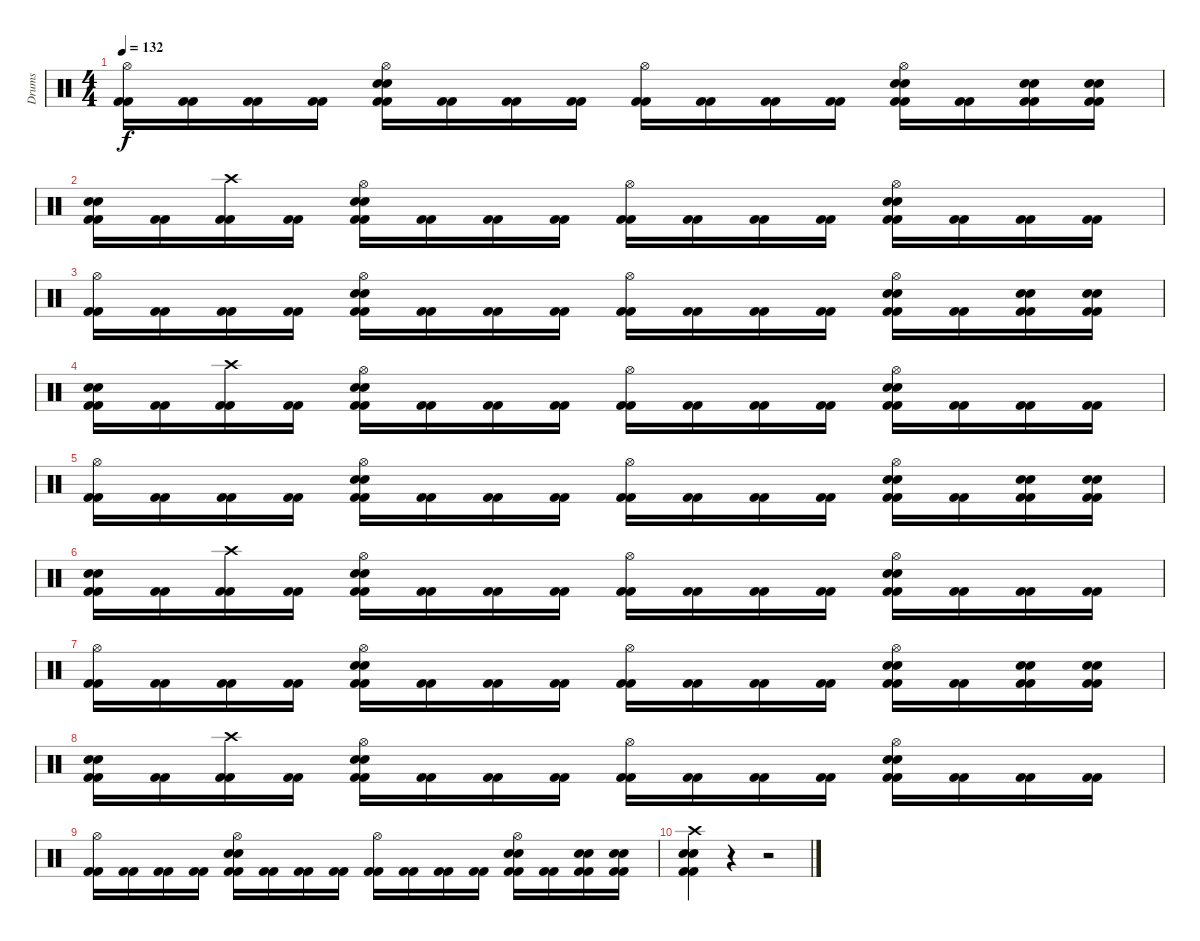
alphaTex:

\track ("Drums" "Drums") {instrument percussion}
\staff {score}
\articulation defaults
\ts (4 4)
\tempo 132
\clef neutral
\ks c
("Hi-Hat (open)" "Kick (hit) 2" "Kick (hit) 2").16{dy f} ("Kick (hit) 2" "Kick (hit) 2").16 ("Kick (hit) 2" "Kick (hit) 2").16 ("Kick (hit) 2" "Kick (hit) 2").16 ("Hi-Hat (open)" "Snare (hit) 2" "Snare (hit) 2" "Kick (hit) 2" "Kick (hit) 2").16 ("Kick (hit) 2" "Kick (hit) 2").16 ("Kick (hit) 2" "Kick (hit) 2").16 ("Kick (hit) 2" "Kick (hit) 2").16 ("Hi-Hat (open)" "Kick (hit) 2" "Kick (hit) 2").16 ("Kick (hit) 2" "Kick (hit) 2").16 ("Kick (hit) 2" "Kick (hit) 2").16 ("Kick (hit) 2" "Kick (hit) 2").16 ("Hi-Hat (open)" "Snare (hit) 2" "Snare (hit) 2" "Kick (hit) 2" "Kick (hit) 2").16 ("Kick (hit) 2" "Kick (hit) 2").16 ("Snare (hit) 2" "Snare (hit) 2" "Kick (hit) 2" "Kick (hit) 2").16 ("Snare (hit) 2" "Snare (hit) 2" "Kick (hit) 2" "Kick (hit) 2").16 |
("Snare (hit) 2" "Snare (hit) 2" "Kick (hit) 2" "Kick (hit) 2").16 ("Kick (hit) 2" "Kick (hit) 2").16 ("Crash high (hit)" "Kick (hit) 2" "Kick (hit) 2").16 ("Kick (hit) 2" "Kick (hit) 2").16 ("Hi-Hat (open)" "Snare (hit) 2" "Snare (hit) 2" "Kick (hit) 2" "Kick (hit) 2").16 ("Kick (hit) 2" "Kick (hit) 2").16 ("Kick (hit) 2" "Kick (hit) 2").16 ("Kick (hit) 2" "Kick (hit) 2").16 ("Hi-Hat (open)" "Kick (hit) 2" "Kick (hit) 2").16 ("Kick (hit) 2" "Kick (hit) 2").16 ("Kick (hit) 2" "Kick (hit) 2").16 ("Kick (hit) 2" "Kick (hit) 2").16 ("Hi-Hat (open)" "Snare (hit) 2" "Snare (hit) 2" "Kick (hit) 2" "Kick (hit) 2").16 ("Kick (hit) 2" "Kick (hit) 2").16 ("Kick (hit) 2" "Kick (hit) 2").16 ("Kick (hit) 2" "Kick (hit) 2").16 |
("Hi-Hat (open)" "Kick (hit) 2" "Kick (hit) 2").16 ("Kick (hit) 2" "Kick (hit) 2").16 ("Kick (hit) 2" "Kick (hit) 2").16 ("Kick (hit) 2" "Kick (hit) 2").16 ("Hi-Hat (open)" "Snare (hit) 2" "Snare (hit) 2" "Kick (hit) 2" "Kick (hit) 2").16 ("Kick (hit) 2" "Kick (hit) 2").16 ("Kick (hit) 2" "Kick (hit) 2").16 ("Kick (hit) 2" "Kick (hit) 2").16 ("Hi-Hat (open)" "Kick (hit) 2" "Kick (hit) 2").16 ("Kick (hit) 2" "Kick (hit) 2").16 ("Kick (hit) 2" "Kick (hit) 2").16 ("Kick (hit) 2" "Kick (hit) 2").16 ("Hi-Hat (open)" "Snare (hit) 2" "Snare (hit) 2" "Kick (hit) 2" "Kick (hit) 2").16 ("Kick (hit) 2" "Kick (hit) 2").16 ("Snare (hit) 2" "Snare (hit) 2" "Kick (hit) 2" "Kick (hit) 2").16 ("Snare (hit) 2" "Snare (hit) 2" "Kick (hit) 2" "Kick (hit) 2").16 |
("Snare (hit) 2" "Snare (hit) 2" "Kick (hit) 2" "Kick (hit) 2").16 ("Kick (hit) 2" "Kick (hit) 2").16 ("Crash high (hit)" "Kick (hit) 2" "Kick (hit) 2").16 ("Kick (hit) 2" "Kick (hit) 2").16 ("Hi-Hat (open)" "Snare (hit) 2" "Snare (hit) 2" "Kick (hit) 2" "Kick (hit) 2").16 ("Kick (hit) 2" "Kick (hit) 2").16 ("Kick (hit) 2" "Kick (hit) 2").16 ("Kick (hit) 2" "Kick (hit) 2").16 ("Hi-Hat (open)" "Kick (hit) 2" "Kick (hit) 2").16 ("Kick (hit) 2" "Kick (hit) 2").16 ("Kick (hit) 2" "Kick (hit) 2").16 ("Kick (hit) 2" "Kick (hit) 2").16 ("Hi-Hat (open)" "Snare (hit) 2" "Snare (hit) 2" "Kick (hit) 2" "Kick (hit) 2").16 ("Kick (hit) 2" "Kick (hit) 2").16 ("Kick (hit) 2" "Kick (hit) 2").16 ("Kick (hit) 2" "Kick (hit) 2").16 |
("Hi-Hat (open)" "Kick (hit) 2" "Kick (hit) 2").16 ("Kick (hit) 2" "Kick (hit) 2").16 ("Kick (hit) 2" "Kick (hit) 2").16 ("Kick (hit) 2" "Kick (hit) 2").16 ("Hi-Hat (open)" "Snare (hit) 2" "Snare (hit) 2" "Kick (hit) 2" "Kick (hit) 2").16 ("Kick (hit) 2" "Kick (hit) 2").16 ("Kick (hit) 2" "Kick (hit) 2").16 ("Kick (hit) 2" "Kick (hit) 2").16 ("Hi-Hat (open)" "Kick (hit) 2" "Kick (hit) 2").16 ("Kick (hit) 2" "Kick (hit) 2").16 ("Kick (hit) 2" "Kick (hit) 2").16 ("Kick (hit) 2" "Kick (hit) 2").16 ("Hi-Hat (open)" "Snare (hit) 2" "Snare (hit) 2" "Kick (hit) 2" "Kick (hit) 2").16 ("Kick (hit) 2" "Kick (hit) 2").16 ("Snare (hit) 2" "Snare (hit) 2" "Kick (hit) 2" "Kick (hit) 2").16 ("Snare (hit) 2" "Snare (hit) 2" "Kick (hit) 2" "Kick (hit) 2").16 |
("Snare (hit) 2" "Snare (hit) 2" "Kick (hit) 2" "Kick (hit) 2").16 ("Kick (hit) 2" "Kick (hit) 2").16 ("Crash high (hit)" "Kick (hit) 2" "Kick (hit) 2").16 ("Kick (hit) 2" "Kick (hit) 2").16 ("Hi-Hat (open)" "Snare (hit) 2" "Snare (hit) 2" "Kick (hit) 2" "Kick (hit) 2").16 ("Kick (hit) 2" "Kick (hit) 2").16 ("Kick (hit) 2" "Kick (hit) 2").16 ("Kick (hit) 2" "Kick (hit) 2").16 ("Hi-Hat (open)" "Kick (hit) 2" "Kick (hit) 2").16 ("Kick (hit) 2" "Kick (hit) 2").16 ("Kick (hit) 2" "Kick (hit) 2").16 ("Kick (hit) 2" "Kick (hit) 2").16 ("Hi-Hat (open)" "Snare (hit) 2" "Snare (hit) 2" "Kick (hit) 2" "Kick (hit) 2").16 ("Kick (hit) 2" "Kick (hit) 2").16 ("Kick (hit) 2" "Kick (hit) 2").16 ("Kick (hit) 2" "Kick (hit) 2").16 |
("Hi-Hat (open)" "Kick (hit) 2" "Kick (hit) 2").16 ("Kick (hit) 2" "Kick (hit) 2").16 ("Kick (hit) 2" "Kick (hit) 2").16 ("Kick (hit) 2" "Kick (hit) 2").16 ("Hi-Hat (open)" "Snare (hit) 2" "Snare (hit) 2" "Kick (hit) 2" "Kick (hit) 2").16 ("Kick (hit) 2" "Kick (hit) 2").16 ("Kick (hit) 2" "Kick (hit) 2").16 ("Kick (hit) 2" "Kick (hit) 2").16 ("Hi-Hat (open)" "Kick (hit) 2" "Kick (hit) 2").16 ("Kick (hit) 2" "Kick (hit) 2").16 ("Kick (hit) 2" "Kick (hit) 2").16 ("Kick (hit) 2" "Kick (hit) 2").16 ("Hi-Hat (open)" "Snare (hit) 2" "Snare (hit) 2" "Kick (hit) 2" "Kick (hit) 2").16 ("Kick (hit) 2" "Kick (hit) 2").16 ("Snare (hit) 2" "Snare (hit) 2" "Kick (hit) 2" "Kick (hit) 2").16 ("Snare (hit) 2" "Snare (hit) 2" "Kick (hit) 2" "Kick (hit) 2").16 |
("Snare (hit) 2" "Snare (hit) 2" "Kick (hit) 2" "Kick (hit) 2").16 ("Kick (hit) 2" "Kick (hit) 2").16 ("Crash high (hit)" "Kick (hit) 2" "Kick (hit) 2").16 ("Kick (hit) 2" "Kick (hit) 2").16 ("Hi-Hat (open)" "Snare (hit) 2" "Snare (hit) 2" "Kick (hit) 2" "Kick (hit) 2").16 ("Kick (hit) 2" "Kick (hit) 2").16 ("Kick (hit) 2" "Kick (hit) 2").16 ("Kick (hit) 2" "Kick (hit) 2").16 ("Hi-Hat (open)" "Kick (hit) 2" "Kick (hit) 2").16 ("Kick (hit) 2" "Kick (hit) 2").16 ("Kick (hit) 2" "Kick (hit) 2").16 ("Kick (hit) 2" "Kick (hit) 2").16 ("Hi-Hat (open)" "Snare (hit) 2" "Snare (hit) 2" "Kick (hit) 2" "Kick (hit) 2").16 ("Kick (hit) 2" "Kick (hit) 2").16 ("Kick (hit) 2" "Kick (hit) 2").16 ("Kick (hit) 2" "Kick (hit) 2").16 |
("Hi-Hat (open)" "Kick (hit) 2" "Kick (hit) 2").16 ("Kick (hit) 2" "Kick (hit) 2").16 ("Kick (hit) 2" "Kick (hit) 2").16 ("Kick (hit) 2" "Kick (hit) 2").16 ("Hi-Hat (open)" "Snare (hit) 2" "Snare (hit) 2" "Kick (hit) 2" "Kick (hit) 2").16 ("Kick (hit) 2" "Kick (hit) 2").16 ("Kick (hit) 2" "Kick (hit) 2").16 ("Kick (hit) 2" "Kick (hit) 2").16 ("Hi-Hat (open)" "Kick (hit) 2" "Kick (hit) 2").16 ("Kick (hit) 2" "Kick (hit) 2").16 ("Kick (hit) 2" "Kick (hit) 2").16 ("Kick (hit) 2" "Kick (hit) 2").16 ("Hi-Hat (open)" "Snare (hit) 2" "Snare (hit) 2" "Kick (hit) 2" "Kick (hit) 2").16 ("Kick (hit) 2" "Kick (hit) 2").16 ("Snare (hit) 2" "Snare (hit) 2" "Kick (hit) 2" "Kick (hit) 2").16 ("Snare (hit) 2" "Snare (hit) 2" "Kick (hit) 2" "Kick (hit) 2").16 |
("Crash high (hit)" "Snare (hit) 2" "Snare (hit) 2" "Kick (hit) 2" "Kick (hit) 2").4 r.4 r.2
